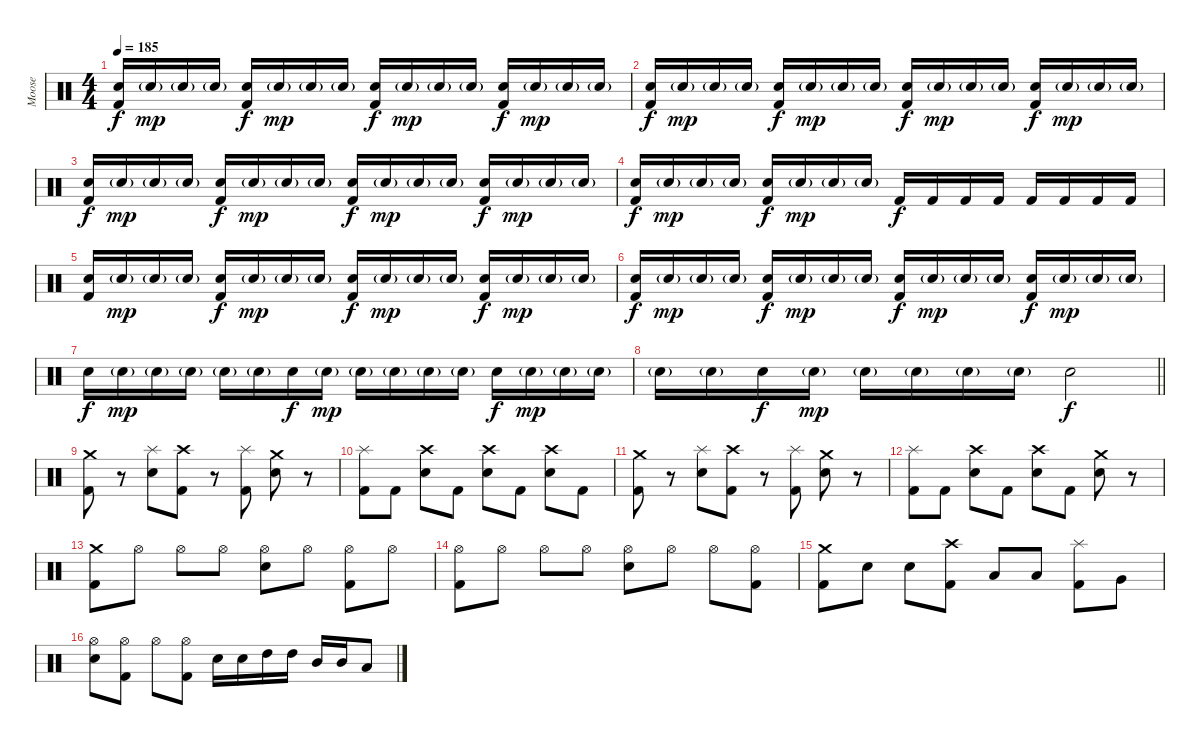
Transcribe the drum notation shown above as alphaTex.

\track ("Moose" "Moose") {instrument percussion}
\staff {score}
\articulation defaults
\ts (4 4)
\tempo 185
\clef neutral
\ks c
("Electric Snare (hit)" "Kick (hit) 2").16{dy f} "Electric Snare (hit)"{g}.16{dy mp} "Electric Snare (hit)"{g}.16 "Electric Snare (hit)"{g}.16 ("Electric Snare (hit)" "Kick (hit) 2").16{dy f} "Electric Snare (hit)"{g}.16{dy mp} "Electric Snare (hit)"{g}.16 "Electric Snare (hit)"{g}.16 ("Electric Snare (hit)" "Kick (hit) 2").16{dy f} "Electric Snare (hit)"{g}.16{dy mp} "Electric Snare (hit)"{g}.16 "Electric Snare (hit)"{g}.16 ("Electric Snare (hit)" "Kick (hit) 2").16{dy f} "Electric Snare (hit)"{g}.16{dy mp} "Electric Snare (hit)"{g}.16 "Electric Snare (hit)"{g}.16 |
("Electric Snare (hit)" "Kick (hit) 2").16{dy f} "Electric Snare (hit)"{g}.16{dy mp} "Electric Snare (hit)"{g}.16 "Electric Snare (hit)"{g}.16 ("Electric Snare (hit)" "Kick (hit) 2").16{dy f} "Electric Snare (hit)"{g}.16{dy mp} "Electric Snare (hit)"{g}.16 "Electric Snare (hit)"{g}.16 ("Electric Snare (hit)" "Kick (hit) 2").16{dy f} "Electric Snare (hit)"{g}.16{dy mp} "Electric Snare (hit)"{g}.16 "Electric Snare (hit)"{g}.16 ("Electric Snare (hit)" "Kick (hit) 2").16{dy f} "Electric Snare (hit)"{g}.16{dy mp} "Electric Snare (hit)"{g}.16 "Electric Snare (hit)"{g}.16 |
("Electric Snare (hit)" "Kick (hit) 2").16{dy f} "Electric Snare (hit)"{g}.16{dy mp} "Electric Snare (hit)"{g}.16 "Electric Snare (hit)"{g}.16 ("Electric Snare (hit)" "Kick (hit) 2").16{dy f} "Electric Snare (hit)"{g}.16{dy mp} "Electric Snare (hit)"{g}.16 "Electric Snare (hit)"{g}.16 ("Electric Snare (hit)" "Kick (hit) 2").16{dy f} "Electric Snare (hit)"{g}.16{dy mp} "Electric Snare (hit)"{g}.16 "Electric Snare (hit)"{g}.16 ("Electric Snare (hit)" "Kick (hit) 2").16{dy f} "Electric Snare (hit)"{g}.16{dy mp} "Electric Snare (hit)"{g}.16 "Electric Snare (hit)"{g}.16 |
("Electric Snare (hit)" "Kick (hit) 2").16{dy f} "Electric Snare (hit)"{g}.16{dy mp} "Electric Snare (hit)"{g}.16 "Electric Snare (hit)"{g}.16 ("Electric Snare (hit)" "Kick (hit) 2").16{dy f} "Electric Snare (hit)"{g}.16{dy mp} "Electric Snare (hit)"{g}.16 "Electric Snare (hit)"{g}.16 "Kick (hit) 2".16{dy f} "Kick (hit) 2".16 "Kick (hit) 2".16 "Kick (hit) 2".16 "Kick (hit) 2".16 "Kick (hit) 2".16 "Kick (hit) 2".16 "Kick (hit) 2".16 |
("Electric Snare (hit)" "Kick (hit) 2").16 "Electric Snare (hit)"{g}.16{dy mp} "Electric Snare (hit)"{g}.16 "Electric Snare (hit)"{g}.16 ("Electric Snare (hit)" "Kick (hit) 2").16{dy f} "Electric Snare (hit)"{g}.16{dy mp} "Electric Snare (hit)"{g}.16 "Electric Snare (hit)"{g}.16 ("Electric Snare (hit)" "Kick (hit) 2").16{dy f} "Electric Snare (hit)"{g}.16{dy mp} "Electric Snare (hit)"{g}.16 "Electric Snare (hit)"{g}.16 ("Electric Snare (hit)" "Kick (hit) 2").16{dy f} "Electric Snare (hit)"{g}.16{dy mp} "Electric Snare (hit)"{g}.16 "Electric Snare (hit)"{g}.16 |
("Electric Snare (hit)" "Kick (hit) 2").16{dy f} "Electric Snare (hit)"{g}.16{dy mp} "Electric Snare (hit)"{g}.16 "Electric Snare (hit)"{g}.16 ("Electric Snare (hit)" "Kick (hit) 2").16{dy f} "Electric Snare (hit)"{g}.16{dy mp} "Electric Snare (hit)"{g}.16 "Electric Snare (hit)"{g}.16 ("Electric Snare (hit)" "Kick (hit) 2").16{dy f} "Electric Snare (hit)"{g}.16{dy mp} "Electric Snare (hit)"{g}.16 "Electric Snare (hit)"{g}.16 ("Electric Snare (hit)" "Kick (hit) 2").16{dy f} "Electric Snare (hit)"{g}.16{dy mp} "Electric Snare (hit)"{g}.16 "Electric Snare (hit)"{g}.16 |
"Electric Snare (hit)".16{dy f} "Electric Snare (hit)"{g}.16{dy mp} "Electric Snare (hit)"{g}.16 "Electric Snare (hit)"{g}.16 "Electric Snare (hit)"{g}.16 "Electric Snare (hit)"{g}.16 "Electric Snare (hit)".16{dy f} "Electric Snare (hit)"{g}.16{dy mp} "Electric Snare (hit)"{g}.16 "Electric Snare (hit)"{g}.16 "Electric Snare (hit)"{g}.16 "Electric Snare (hit)"{g}.16 "Electric Snare (hit)".16{dy f} "Electric Snare (hit)"{g}.16{dy mp} "Electric Snare (hit)"{g}.16 "Electric Snare (hit)"{g}.16 |
\barLineRight lightlight "Electric Snare (hit)"{g}.16 "Electric Snare (hit)"{g}.16 "Electric Snare (hit)".16{dy f} "Electric Snare (hit)"{g}.16{dy mp} "Electric Snare (hit)"{g}.16 "Electric Snare (hit)"{g}.16 "Electric Snare (hit)"{g}.16 "Electric Snare (hit)"{g}.16 "Electric Snare (hit)".2{dy f}
|
("Crash medium (hit)" "Kick (hit) 2").8 r.8 ("Splash (hit)" "Electric Snare (hit)").8 ("Crash high (hit)" "Kick (hit) 2").8 r.8 ("Splash (hit)" "Kick (hit) 2").8 ("Crash medium (hit)" "Electric Snare (hit)").8 r.8 |
("Splash (hit)" "Kick (hit) 2").8 "Kick (hit) 2".8 ("Crash high (hit)" "Electric Snare (hit)").8 "Kick (hit) 2".8 ("Crash high (hit)" "Electric Snare (hit)").8 "Kick (hit) 2".8 ("Crash high (hit)" "Electric Snare (hit)").8 "Kick (hit) 2".8 |
("Crash medium (hit)" "Kick (hit) 2").8 r.8 ("Splash (hit)" "Electric Snare (hit)").8 ("Crash high (hit)" "Kick (hit) 2").8 r.8 ("Splash (hit)" "Kick (hit) 2").8 ("Crash medium (hit)" "Electric Snare (hit)").8 r.8 |
("Splash (hit)" "Kick (hit) 2").8 "Kick (hit) 2".8 ("Crash high (hit)" "Electric Snare (hit)").8 "Kick (hit) 2".8 ("Crash high (hit)" "Electric Snare (hit)").8 "Kick (hit) 2".8 ("Crash medium (hit)" "Electric Snare (hit)").8 r.8 |
("Crash medium (hit)" "Kick (hit) 2").8 "Hi-Hat (open)".8 "Hi-Hat (open)".8 "Hi-Hat (open)".8 ("Hi-Hat (open)" "Electric Snare (hit)").8 "Hi-Hat (open)".8 ("Hi-Hat (open)" "Kick (hit) 2").8 "Hi-Hat (open)".8 |
("Hi-Hat (open)" "Kick (hit) 2").8 "Hi-Hat (open)".8 "Hi-Hat (open)".8 "Hi-Hat (open)".8 ("Hi-Hat (open)" "Electric Snare (hit)").8 "Hi-Hat (open)".8 "Hi-Hat (open)".8 ("Hi-Hat (open)" "Kick (hit) 2").8 |
("Crash medium (hit)" "Kick (hit) 2").8 "Electric Snare (hit)".8 "Electric Snare (hit)".8 ("Crash high (hit)" "Kick (hit) 2").8 "Low Tom (hit)".8 "Low Tom (hit)".8 ("Splash (hit)" "Kick (hit) 2").8 "Very Low Tom (hit)".8 |
("Hi-Hat (open)" "Electric Snare (hit)").8 ("Hi-Hat (open)" "Kick (hit) 2").8 "Hi-Hat (open)".8 ("Hi-Hat (open)" "Kick (hit) 2").8 "Electric Snare (hit)".16 "Electric Snare (hit)".16 "High Tom (hit)".16 "High Tom (hit)".16 "Mid Tom (hit)".16 "Mid Tom (hit)".16 "Low Tom (hit)".8
